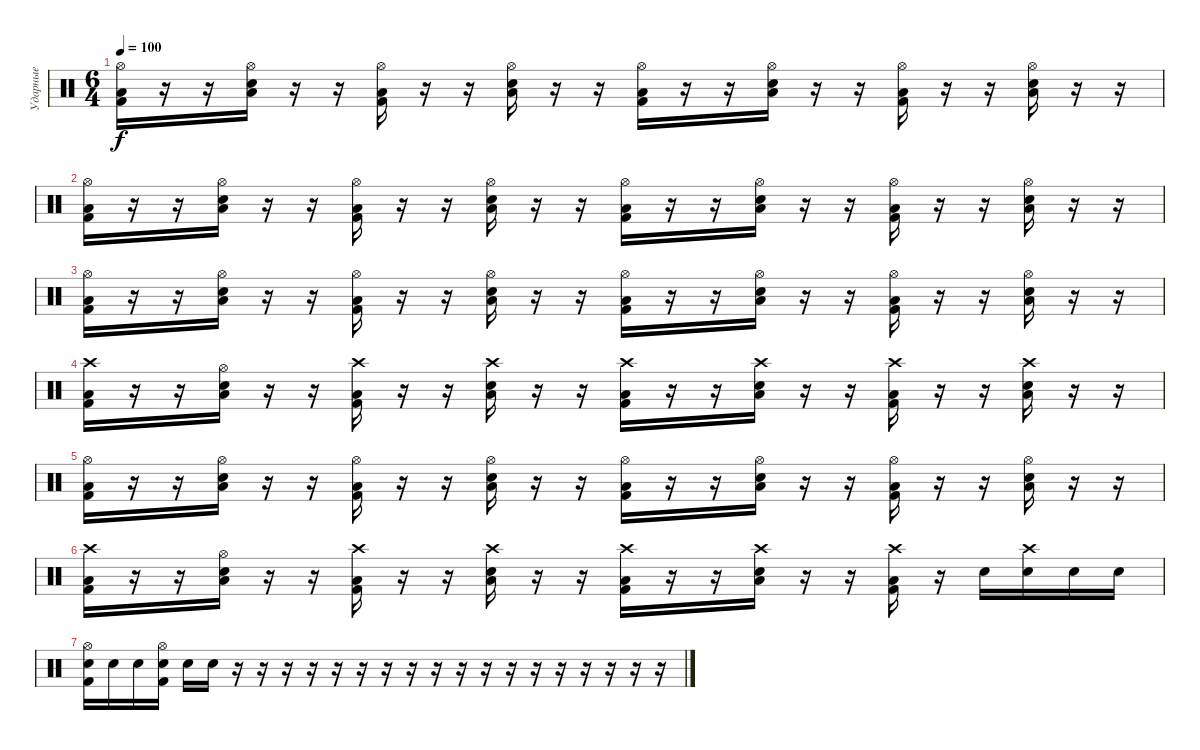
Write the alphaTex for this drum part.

\track ("Ударные" "Ударные") {instrument percussion}
\staff {score}
\articulation defaults
\ts (6 4)
\tempo 100
\clef neutral
\ks c
("Hi-Hat (open)" "Low Tom (hit)" "Kick (hit) 2").16{dy f} r.16 r.16 ("Hi-Hat (open)" "Low Tom (hit)" "Snare (hit) 2").16 r.16 r.16 ("Hi-Hat (open)" "Low Tom (hit)" "Kick (hit) 2").16 r.16 r.16 ("Hi-Hat (open)" "Low Tom (hit)" "Snare (hit) 2").16 r.16 r.16 ("Hi-Hat (open)" "Low Tom (hit)" "Kick (hit) 2").16 r.16 r.16 ("Hi-Hat (open)" "Low Tom (hit)" "Snare (hit) 2").16 r.16 r.16 ("Hi-Hat (open)" "Low Tom (hit)" "Kick (hit) 2").16 r.16 r.16 ("Hi-Hat (open)" "Low Tom (hit)" "Snare (hit) 2").16 r.16 r.16 |
("Hi-Hat (open)" "Low Tom (hit)" "Kick (hit) 2").16 r.16 r.16 ("Hi-Hat (open)" "Low Tom (hit)" "Snare (hit) 2").16 r.16 r.16 ("Hi-Hat (open)" "Low Tom (hit)" "Kick (hit) 2").16 r.16 r.16 ("Hi-Hat (open)" "Low Tom (hit)" "Snare (hit) 2").16 r.16 r.16 ("Hi-Hat (open)" "Low Tom (hit)" "Kick (hit) 2").16 r.16 r.16 ("Hi-Hat (open)" "Low Tom (hit)" "Snare (hit) 2").16 r.16 r.16 ("Hi-Hat (open)" "Low Tom (hit)" "Kick (hit) 2").16 r.16 r.16 ("Hi-Hat (open)" "Low Tom (hit)" "Snare (hit) 2").16 r.16 r.16 |
("Hi-Hat (open)" "Low Tom (hit)" "Kick (hit) 2").16 r.16 r.16 ("Hi-Hat (open)" "Low Tom (hit)" "Snare (hit) 2").16 r.16 r.16 ("Hi-Hat (open)" "Low Tom (hit)" "Kick (hit) 2").16 r.16 r.16 ("Hi-Hat (open)" "Low Tom (hit)" "Snare (hit) 2").16 r.16 r.16 ("Hi-Hat (open)" "Low Tom (hit)" "Kick (hit) 2").16 r.16 r.16 ("Hi-Hat (open)" "Low Tom (hit)" "Snare (hit) 2").16 r.16 r.16 ("Hi-Hat (open)" "Low Tom (hit)" "Kick (hit) 2").16 r.16 r.16 ("Hi-Hat (open)" "Low Tom (hit)" "Snare (hit) 2").16 r.16 r.16 |
("Crash high (hit)" "Low Tom (hit)" "Kick (hit) 2").16 r.16 r.16 ("Hi-Hat (open)" "Low Tom (hit)" "Snare (hit) 2").16 r.16 r.16 ("Crash high (hit)" "Low Tom (hit)" "Kick (hit) 2").16 r.16 r.16 ("Crash high (hit)" "Low Tom (hit)" "Snare (hit) 2").16 r.16 r.16 ("Crash high (hit)" "Low Tom (hit)" "Kick (hit) 2").16 r.16 r.16 ("Crash high (hit)" "Low Tom (hit)" "Snare (hit) 2").16 r.16 r.16 ("Crash high (hit)" "Low Tom (hit)" "Kick (hit) 2").16 r.16 r.16 ("Crash high (hit)" "Low Tom (hit)" "Snare (hit) 2").16 r.16 r.16 |
("Hi-Hat (open)" "Low Tom (hit)" "Kick (hit) 2").16 r.16 r.16 ("Hi-Hat (open)" "Low Tom (hit)" "Snare (hit) 2").16 r.16 r.16 ("Hi-Hat (open)" "Low Tom (hit)" "Kick (hit) 2").16 r.16 r.16 ("Hi-Hat (open)" "Low Tom (hit)" "Snare (hit) 2").16 r.16 r.16 ("Hi-Hat (open)" "Low Tom (hit)" "Kick (hit) 2").16 r.16 r.16 ("Hi-Hat (open)" "Low Tom (hit)" "Snare (hit) 2").16 r.16 r.16 ("Hi-Hat (open)" "Low Tom (hit)" "Kick (hit) 2").16 r.16 r.16 ("Hi-Hat (open)" "Low Tom (hit)" "Snare (hit) 2").16 r.16 r.16 |
("Crash high (hit)" "Low Tom (hit)" "Kick (hit) 2").16 r.16 r.16 ("Hi-Hat (open)" "Low Tom (hit)" "Snare (hit) 2").16 r.16 r.16 ("Crash high (hit)" "Low Tom (hit)" "Kick (hit) 2").16 r.16 r.16 ("Crash high (hit)" "Low Tom (hit)" "Snare (hit) 2").16 r.16 r.16 ("Crash high (hit)" "Low Tom (hit)" "Kick (hit) 2").16 r.16 r.16 ("Crash high (hit)" "Low Tom (hit)" "Snare (hit) 2").16 r.16 r.16 ("Crash high (hit)" "Low Tom (hit)" "Kick (hit) 2").16 r.16 "Snare (hit) 2".16 ("Crash high (hit)" "Snare (hit) 2").16 "Snare (hit) 2".16 "Snare (hit) 2".16 |
("Hi-Hat (open)" "Snare (hit) 2" "Kick (hit) 2").16 "Snare (hit) 2".16 "Snare (hit) 2".16 ("Hi-Hat (open)" "Snare (hit) 2" "Kick (hit) 2").16 "Snare (hit) 2".16 "Snare (hit) 2".16 r.16 r.16 r.16 r.16 r.16 r.16 r.16 r.16 r.16 r.16 r.16 r.16 r.16 r.16 r.16 r.16 r.16 r.16
